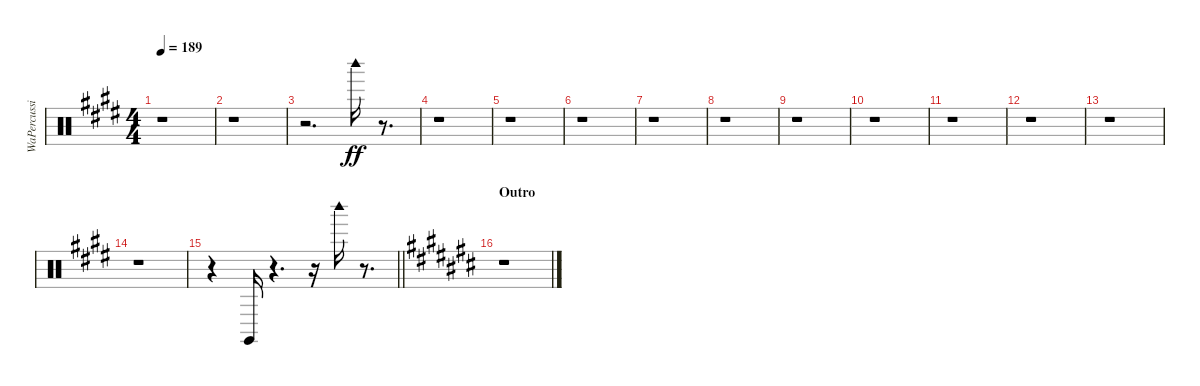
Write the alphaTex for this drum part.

\track ("WaPercussion" "WaPercussi") {instrument percussion}
\staff {score}
\articulation defaults
\ts (4 4)
\tempo 189
\clef neutral
\ks c#minor
r.1{dy ff} |
r.1 |
r.2{d} "Woodblock high (hit)".16 r.8{d} |
\ks e
r.1 |
\ks c#minor
r.1 |
r.1 |
r.1 |
\ks e
r.1 |
\ks c#minor
r.1 |
r.1 |
r.1 |
\ks e
r.1 |
\ks c#minor
r.1 |
r.1 |
\barLineRight lightlight
r.4 "Claves (hit)".16 r.4{d} r.16 "Woodblock high (hit)".16 r.8{d} |
\section ("" "Outro")
\ks c#
r.1
